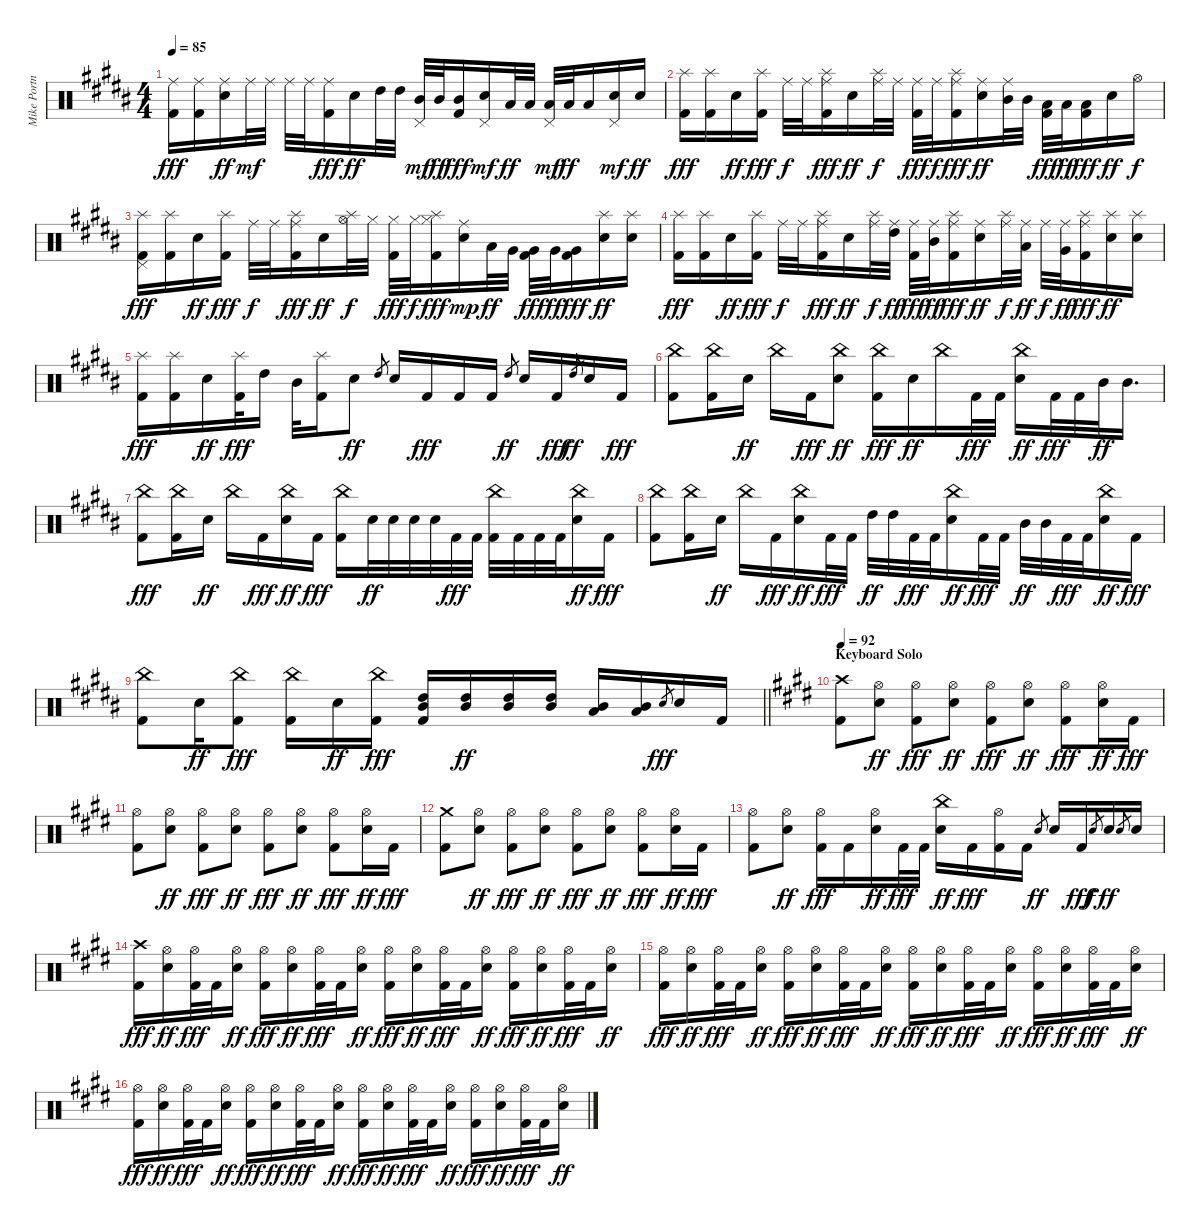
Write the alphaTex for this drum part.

\track ("Mike Portnoy" "Mike Portn") {instrument percussion}
\staff {score}
\articulation defaults
\ts (4 4)
\tempo 85
\clef neutral
\ks b
("Ride (middle)" "Kick (hit) 2").16{dy fff} ("Ride (middle)" "Kick (hit) 2").16 ("Ride (middle)" "Electric Snare (hit)").16{dy ff} "Ride (middle)".32{dy mf} "Ride (middle)".32 "Ride (middle)".32 "Ride (middle)".32 ("Ride (middle)" "Kick (hit) 2").16{dy fff} "Electric Snare (hit)".16{dy ff} "High Tom (hit)".32 "High Tom (hit)".32 ("Mid Tom (hit)" "Pedal Hi-Hat (hit)").32{dy mf} "Mid Tom (hit)".32{dy ff} ("Mid Tom (hit)" "Kick (hit) 2").16{dy fff} ("Electric Snare (hit)" "Pedal Hi-Hat (hit)").16{dy mf} "Low Tom (hit)".32{dy ff} "Low Tom (hit)".32 ("Low Tom (hit)" "Pedal Hi-Hat (hit)").32{dy mf} "Low Tom (hit)".32{dy ff} "Low Tom (hit)".16 ("Electric Snare (hit)" "Pedal Hi-Hat (hit)").16{dy mf} "Electric Snare (hit)".16{dy ff} |
("Splash (hit)" "Kick (hit) 2").16{dy fff} ("Splash (hit)" "Kick (hit) 2").16 "Electric Snare (hit)".16{dy ff} ("Splash (hit)" "Kick (hit) 2").16{dy fff} "Ride (middle)".32{dy f} "Ride (middle)".32 ("Ride (middle)" "Splash (hit)" "Kick (hit) 2").16{dy fff} "Electric Snare (hit)".16{dy ff} ("Ride (middle)" "Splash (hit)").32{dy f} "Ride (middle)".32 ("Ride (middle)" "Kick (hit) 2").32{dy fff} "Ride (middle)".32{dy f} ("Ride (middle)" "Splash (hit)" "Kick (hit) 2").16{dy fff} ("Ride (middle)" "Electric Snare (hit)").16{dy ff} ("Ride (middle)" "Mid Tom (hit)").32 "Mid Tom (hit)".32 ("Low Tom (hit)" "Kick (hit) 2").32{dy fff} "Low Tom (hit)".32{dy ff} ("Low Tom (hit)" "Kick (hit) 2").16{dy fff} "Electric Snare (hit)".16{dy ff} "Hi-Hat (open)".16{dy f} |
("Splash (hit)" "Pedal Hi-Hat (hit)" "Kick (hit) 2").16{dy fff} ("Splash (hit)" "Kick (hit) 2").16 "Electric Snare (hit)".16{dy ff} ("Splash (hit)" "Kick (hit) 2").16{dy fff} "Ride (middle)".32{dy f} "Ride (middle)".32 ("Ride (middle)" "Splash (hit)" "Kick (hit) 2").16{dy fff} "Electric Snare (hit)".16{dy ff} ("Hi-Hat (open)" "Splash (hit)").32{dy f} "Hi-Hat (closed)".32 ("Hi-Hat (closed)" "Kick (hit) 2").32{dy fff} "Hi-Hat (closed)".32{dy f} ("Hi-Hat (closed)" "Splash (hit)" "Kick (hit) 2").16{dy fff} ("Ride (middle)" "Electric Snare (hit)").16{dy mp} "Low Tom (hit)".32{dy ff} "Very Low Tom (hit)".32 ("Very Low Tom (hit)" "Kick (hit) 2").32{dy fff} "Very Low Tom (hit)".32{dy ff} ("Very Low Tom (hit)" "Kick (hit) 2").16{dy fff} ("Splash (hit)" "Electric Snare (hit)").16{dy ff} ("Splash (hit)" "Electric Snare (hit)").16 |
("Splash (hit)" "Kick (hit) 2").16{dy fff} ("Splash (hit)" "Kick (hit) 2").16 "Electric Snare (hit)".16{dy ff} ("Splash (hit)" "Kick (hit) 2").16{dy fff} "Ride (middle)".32{dy f} "Ride (middle)".32 ("Ride (middle)" "Splash (hit)" "Kick (hit) 2").16{dy fff} "Electric Snare (hit)".16{dy ff} ("Ride (middle)" "Splash (hit)").32{dy f} ("Ride (middle)" "High Tom (hit)").32{dy ff} ("Ride (middle)" "Kick (hit) 2").32{dy fff} ("Ride (middle)" "Mid Tom (hit)").32{dy ff} ("Ride (middle)" "Splash (hit)" "Kick (hit) 2").16{dy fff} ("Ride (middle)" "Electric Snare (hit)").16{dy ff} ("Ride (middle)" "Splash (hit)").32{dy f} ("Ride (middle)" "Low Tom (hit)").32{dy ff} "Ride (middle)".32{dy f} ("Ride (middle)" "Very Low Tom (hit)").32{dy ff} ("Ride (middle)" "Splash (hit)" "Kick (hit) 2").16{dy fff} ("Splash (hit)" "Electric Snare (hit)").16{dy ff} ("Splash (hit)" "Electric Snare (hit)").16 |
("Splash (hit)" "Kick (hit) 2").16{dy fff} ("Splash (hit)" "Kick (hit) 2").16 "Electric Snare (hit)".16{dy ff} ("Splash (hit)" "Kick (hit) 2").32{dy fff} "High Tom (hit)".16 "Mid Tom (hit)".32 ("Splash (hit)" "Kick (hit) 2").16 "Electric Snare (hit)".8{dy ff} "High Tom (hit)".8{gr} "Electric Snare (hit)".16 "Kick (hit) 2".16{dy fff} "Kick (hit) 2".16 "Kick (hit) 2".16 "High Tom (hit)".8{gr dy ff} "Electric Snare (hit)".16 "Kick (hit) 2".16{dy fff} "High Tom (hit)".8{gr dy ff} "Electric Snare (hit)".16 "Kick (hit) 2".16{dy fff} |
("China (hit)" "Kick (hit) 2").8 ("China (hit)" "Kick (hit) 2").16 "Electric Snare (hit)".16{dy ff} "China (hit)".16 "Kick (hit) 2".16{dy fff} ("China (hit)" "Electric Snare (hit)").8{dy ff} ("China (hit)" "Kick (hit) 2").16{dy fff} "Electric Snare (hit)".16{dy ff} "China (hit)".16 "Kick (hit) 2".32{dy fff} "Kick (hit) 2".32 ("China (hit)" "Electric Snare (hit)").16{dy ff} "Kick (hit) 2".32{dy fff} "Kick (hit) 2".32 "Mid Tom (hit)".32{dy ff} "Mid Tom (hit)".16{d} |
("China (hit)" "Kick (hit) 2").8{dy fff} ("China (hit)" "Kick (hit) 2").16 "Electric Snare (hit)".16{dy ff} "China (hit)".16 "Kick (hit) 2".16{dy fff} ("China (hit)" "Electric Snare (hit)").16{dy ff} "Kick (hit) 2".16{dy fff} ("China (hit)" "Kick (hit) 2").16 "Electric Snare (hit)".32{dy ff} "Electric Snare (hit)".32 "Electric Snare (hit)".32 "Electric Snare (hit)".32 "Kick (hit) 2".32{dy fff} "Kick (hit) 2".32 ("China (hit)" "Kick (hit) 2").32 "Kick (hit) 2".32 "Kick (hit) 2".32 "Kick (hit) 2".32 ("China (hit)" "Electric Snare (hit)").16{dy ff} "Kick (hit) 2".16{dy fff} |
("China (hit)" "Kick (hit) 2").8 ("China (hit)" "Kick (hit) 2").16 "Electric Snare (hit)".16{dy ff} "China (hit)".16 "Kick (hit) 2".16{dy fff} ("China (hit)" "Electric Snare (hit)").16{dy ff} "Kick (hit) 2".32{dy fff} "Kick (hit) 2".32 "High Tom (hit)".32{dy ff} "High Tom (hit)".32 "Kick (hit) 2".32{dy fff} "Kick (hit) 2".32 ("China (hit)" "Electric Snare (hit)").16{dy ff} "Kick (hit) 2".32{dy fff} "Kick (hit) 2".32 "Mid Tom (hit)".32{dy ff} "Mid Tom (hit)".32 "Kick (hit) 2".32{dy fff} "Kick (hit) 2".32 ("China (hit)" "Electric Snare (hit)").16{dy ff} "Kick (hit) 2".16{dy fff} |
\barLineRight lightlight
("China (hit)" "Kick (hit) 2").8 "Electric Snare (hit)".16{dy ff} ("China (hit)" "Kick (hit) 2").8{dy fff} ("China (hit)" "Kick (hit) 2").16 "Electric Snare (hit)".16{dy ff} ("China (hit)" "Kick (hit) 2").16{dy fff} ("High Tom (hit)" "Mid Tom (hit)" "Kick (hit) 2").16 ("High Tom (hit)" "Mid Tom (hit)").16{dy ff} ("High Tom (hit)" "Mid Tom (hit)").16 ("High Tom (hit)" "Mid Tom (hit)").16 ("Mid Tom (hit)" "Low Tom (hit)").16 ("Mid Tom (hit)" "Low Tom (hit)").16 "Electric Snare (hit)".8{gr dy fff} "Electric Snare (hit)".16 "Kick (hit) 2".16 |
\section ("" "Keyboard Solo")
\tempo 92
\ks e
("Crash high (hit)" "Kick (hit) 2").8 ("Hi-Hat (open)" "Electric Snare (hit)").8{dy ff} ("Hi-Hat (open)" "Kick (hit) 2").8{dy fff} ("Hi-Hat (open)" "Electric Snare (hit)").8{dy ff} ("Hi-Hat (open)" "Kick (hit) 2").8{dy fff} ("Hi-Hat (open)" "Electric Snare (hit)").8{dy ff} ("Hi-Hat (open)" "Kick (hit) 2").8{dy fff} ("Hi-Hat (open)" "Electric Snare (hit)").16{dy ff} "Kick (hit) 2".16{dy fff} |
("Hi-Hat (open)" "Kick (hit) 2").8 ("Hi-Hat (open)" "Electric Snare (hit)").8{dy ff} ("Hi-Hat (open)" "Kick (hit) 2").8{dy fff} ("Hi-Hat (open)" "Electric Snare (hit)").8{dy ff} ("Hi-Hat (open)" "Kick (hit) 2").8{dy fff} ("Hi-Hat (open)" "Electric Snare (hit)").8{dy ff} ("Hi-Hat (open)" "Kick (hit) 2").8{dy fff} ("Hi-Hat (open)" "Electric Snare (hit)").16{dy ff} "Kick (hit) 2".16{dy fff} |
("Crash medium (hit)" "Kick (hit) 2").8 ("Hi-Hat (open)" "Electric Snare (hit)").8{dy ff} ("Hi-Hat (open)" "Kick (hit) 2").8{dy fff} ("Hi-Hat (open)" "Electric Snare (hit)").8{dy ff} ("Hi-Hat (open)" "Kick (hit) 2").8{dy fff} ("Hi-Hat (open)" "Electric Snare (hit)").8{dy ff} ("Hi-Hat (open)" "Kick (hit) 2").8{dy fff} ("Hi-Hat (open)" "Electric Snare (hit)").16{dy ff} "Kick (hit) 2".16{dy fff} |
("Hi-Hat (open)" "Kick (hit) 2").8 ("Hi-Hat (open)" "Electric Snare (hit)").8{dy ff} ("Hi-Hat (open)" "Kick (hit) 2").16{dy fff} "Kick (hit) 2".16 ("Hi-Hat (open)" "Electric Snare (hit)").16{dy ff} "Kick (hit) 2".32{dy fff} "Kick (hit) 2".32 ("China (hit)" "Electric Snare (hit)").16{dy ff} "Kick (hit) 2".16{dy fff} ("Hi-Hat (open)" "Kick (hit) 2").16 "Kick (hit) 2".16 "Electric Snare (hit)".8{gr dy ff} "Electric Snare (hit)".16 "Kick (hit) 2".16{dy fff} "Electric Snare (hit)".8{gr dy f} "Electric Snare (hit)".16{dy ff} "Electric Snare (hit)".8{gr} "Electric Snare (hit)".16 |
("Crash high (hit)" "Kick (hit) 2").16{dy fff} ("Hi-Hat (open)" "Electric Snare (hit)").16{dy ff} ("Hi-Hat (open)" "Kick (hit) 2").32{dy fff} "Kick (hit) 2".32 ("Hi-Hat (open)" "Electric Snare (hit)").16{dy ff} ("Hi-Hat (open)" "Kick (hit) 2").16{dy fff} ("Hi-Hat (open)" "Electric Snare (hit)").16{dy ff} ("Hi-Hat (open)" "Kick (hit) 2").32{dy fff} "Kick (hit) 2".32 ("Hi-Hat (open)" "Electric Snare (hit)").16{dy ff} ("Hi-Hat (open)" "Kick (hit) 2").16{dy fff} ("Hi-Hat (open)" "Electric Snare (hit)").16{dy ff} ("Hi-Hat (open)" "Kick (hit) 2").32{dy fff} "Kick (hit) 2".32 ("Hi-Hat (open)" "Electric Snare (hit)").16{dy ff} ("Hi-Hat (open)" "Kick (hit) 2").16{dy fff} ("Hi-Hat (open)" "Electric Snare (hit)").16{dy ff} ("Hi-Hat (open)" "Kick (hit) 2").32{dy fff} "Kick (hit) 2".32 ("Hi-Hat (open)" "Electric Snare (hit)").16{dy ff} |
("Hi-Hat (open)" "Kick (hit) 2").16{dy fff} ("Hi-Hat (open)" "Electric Snare (hit)").16{dy ff} ("Hi-Hat (open)" "Kick (hit) 2").32{dy fff} "Kick (hit) 2".32 ("Hi-Hat (open)" "Electric Snare (hit)").16{dy ff} ("Hi-Hat (open)" "Kick (hit) 2").16{dy fff} ("Hi-Hat (open)" "Electric Snare (hit)").16{dy ff} ("Hi-Hat (open)" "Kick (hit) 2").32{dy fff} "Kick (hit) 2".32 ("Hi-Hat (open)" "Electric Snare (hit)").16{dy ff} ("Hi-Hat (open)" "Kick (hit) 2").16{dy fff} ("Hi-Hat (open)" "Electric Snare (hit)").16{dy ff} ("Hi-Hat (open)" "Kick (hit) 2").32{dy fff} "Kick (hit) 2".32 ("Hi-Hat (open)" "Electric Snare (hit)").16{dy ff} ("Hi-Hat (open)" "Kick (hit) 2").16{dy fff} ("Hi-Hat (open)" "Electric Snare (hit)").16{dy ff} ("Hi-Hat (open)" "Kick (hit) 2").32{dy fff} "Kick (hit) 2".32 ("Hi-Hat (open)" "Electric Snare (hit)").16{dy ff} |
("Hi-Hat (open)" "Kick (hit) 2").16{dy fff} ("Hi-Hat (open)" "Electric Snare (hit)").16{dy ff} ("Hi-Hat (open)" "Kick (hit) 2").32{dy fff} "Kick (hit) 2".32 ("Hi-Hat (open)" "Electric Snare (hit)").16{dy ff} ("Hi-Hat (open)" "Kick (hit) 2").16{dy fff} ("Hi-Hat (open)" "Electric Snare (hit)").16{dy ff} ("Hi-Hat (open)" "Kick (hit) 2").32{dy fff} "Kick (hit) 2".32 ("Hi-Hat (open)" "Electric Snare (hit)").16{dy ff} ("Hi-Hat (open)" "Kick (hit) 2").16{dy fff} ("Hi-Hat (open)" "Electric Snare (hit)").16{dy ff} ("Hi-Hat (open)" "Kick (hit) 2").32{dy fff} "Kick (hit) 2".32 ("Hi-Hat (open)" "Electric Snare (hit)").16{dy ff} ("Hi-Hat (open)" "Kick (hit) 2").16{dy fff} ("Hi-Hat (open)" "Electric Snare (hit)").16{dy ff} ("Hi-Hat (open)" "Kick (hit) 2").32{dy fff} "Kick (hit) 2".32 ("Hi-Hat (open)" "Electric Snare (hit)").16{dy ff}
